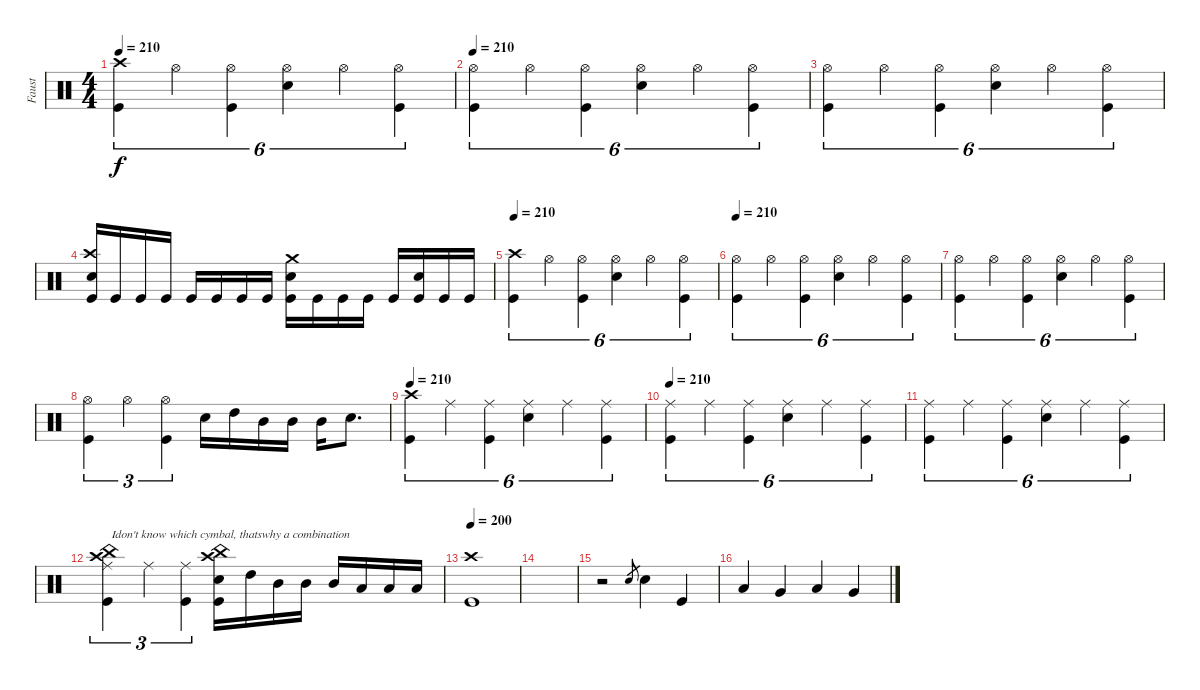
\track ("Faust" "Faust") {instrument percussion}
\staff {score}
\articulation defaults
\ts (4 4)
\tempo 210
\clef neutral
\ks c
("Kick (hit)" "Crash high (hit)").4{tu (6 4) dy f} "Hi-Hat (open)".4{tu (6 4)} ("Kick (hit)" "Hi-Hat (open)").4{tu (6 4)} ("Snare (hit) 2" "Hi-Hat (open)").4{tu (6 4)} "Hi-Hat (open)".4{tu (6 4)} ("Kick (hit)" "Hi-Hat (open)").4{tu (6 4)} |
\tempo 210
("Kick (hit)" "Hi-Hat (open)").4{tu (6 4)} "Hi-Hat (open)".4{tu (6 4)} ("Kick (hit)" "Hi-Hat (open)").4{tu (6 4)} ("Snare (hit) 2" "Hi-Hat (open)").4{tu (6 4)} "Hi-Hat (open)".4{tu (6 4)} ("Kick (hit)" "Hi-Hat (open)").4{tu (6 4)} |
("Kick (hit)" "Hi-Hat (open)").4{tu (6 4)} "Hi-Hat (open)".4{tu (6 4)} ("Kick (hit)" "Hi-Hat (open)").4{tu (6 4)} ("Snare (hit) 2" "Hi-Hat (open)").4{tu (6 4)} "Hi-Hat (open)".4{tu (6 4)} ("Kick (hit)" "Hi-Hat (open)").4{tu (6 4)} |
("Kick (hit)" "Snare (hit) 2" "Crash high (hit)").16 "Kick (hit)".16 "Kick (hit)".16 "Kick (hit)".16 "Kick (hit)".16 "Kick (hit)".16 "Kick (hit)".16 "Kick (hit)".16 ("Kick (hit)" "Snare (hit) 2" "Crash medium (hit)").16 "Kick (hit)".16 "Kick (hit)".16 "Kick (hit)".16 "Kick (hit)".16 ("Kick (hit)" "Snare (hit) 2").16 "Kick (hit)".16 "Kick (hit)".16 |
\tempo 210
("Kick (hit)" "Crash high (hit)").4{tu (6 4)} "Hi-Hat (open)".4{tu (6 4)} ("Kick (hit)" "Hi-Hat (open)").4{tu (6 4)} ("Snare (hit) 2" "Hi-Hat (open)").4{tu (6 4)} "Hi-Hat (open)".4{tu (6 4)} ("Kick (hit)" "Hi-Hat (open)").4{tu (6 4)} |
\tempo 210
("Kick (hit)" "Hi-Hat (open)").4{tu (6 4)} "Hi-Hat (open)".4{tu (6 4)} ("Kick (hit)" "Hi-Hat (open)").4{tu (6 4)} ("Snare (hit) 2" "Hi-Hat (open)").4{tu (6 4)} "Hi-Hat (open)".4{tu (6 4)} ("Kick (hit)" "Hi-Hat (open)").4{tu (6 4)} |
("Kick (hit)" "Hi-Hat (open)").4{tu (6 4)} "Hi-Hat (open)".4{tu (6 4)} ("Kick (hit)" "Hi-Hat (open)").4{tu (6 4)} ("Snare (hit) 2" "Hi-Hat (open)").4{tu (6 4)} "Hi-Hat (open)".4{tu (6 4)} ("Kick (hit)" "Hi-Hat (open)").4{tu (6 4)} |
("Kick (hit)" "Hi-Hat (open)").4{tu (3 2)} "Hi-Hat (open)".4{tu (3 2)} ("Kick (hit)" "Hi-Hat (open)").4{tu (3 2)} "Snare (hit) 2".16 "High Tom (hit)".16 "Mid Tom (hit)".16 "Mid Tom (hit)".16 "Mid Tom (hit)".16 "Snare (hit) 2".8{d} |
\tempo 210
("Kick (hit)" "Crash high (hit)").4{tu (6 4)} "Ride (middle)".4{tu (6 4)} ("Kick (hit)" "Ride (middle)").4{tu (6 4)} ("Snare (hit) 2" "Ride (middle)").4{tu (6 4)} "Ride (middle)".4{tu (6 4)} ("Kick (hit)" "Ride (middle)").4{tu (6 4)} |
\tempo 210
("Kick (hit)" "Ride (middle)").4{tu (6 4)} "Ride (middle)".4{tu (6 4)} ("Kick (hit)" "Ride (middle)").4{tu (6 4)} ("Snare (hit) 2" "Ride (middle)").4{tu (6 4)} "Ride (middle)".4{tu (6 4)} ("Kick (hit)" "Ride (middle)").4{tu (6 4)} |
("Kick (hit)" "Ride (middle)").4{tu (6 4)} "Ride (middle)".4{tu (6 4)} ("Kick (hit)" "Ride (middle)").4{tu (6 4)} ("Snare (hit) 2" "Ride (middle)").4{tu (6 4)} "Ride (middle)".4{tu (6 4)} ("Kick (hit)" "Ride (middle)").4{tu (6 4)} |
("Kick (hit)" "Ride (middle)" "China (hit)" "Crash high (hit)").4{tu (3 2) txt "Idon't know which cymbal, thatswhy a combination"} "Ride (middle)".4{tu (3 2)} ("Kick (hit)" "Ride (middle)").4{tu (3 2)} ("Kick (hit)" "Snare (hit) 2" "China (hit)" "Crash high (hit)").16 "High Tom (hit)".16 "Mid Tom (hit)".16 "Mid Tom (hit)".16 "Mid Tom (hit)".16 "Low Tom (hit)".16 "Low Tom (hit)".16 "Low Tom (hit)".16 |
\tempo 200
("Kick (hit)" "Crash high (hit)").1 |
|
r.2 "Snare (hit) 2".8{gr} "Snare (hit) 2".4 "Kick (hit)".4 |
"Low Tom (hit)".4 "Very Low Tom (hit)".4 "Low Tom (hit)".4 "Very Low Tom (hit)".4
